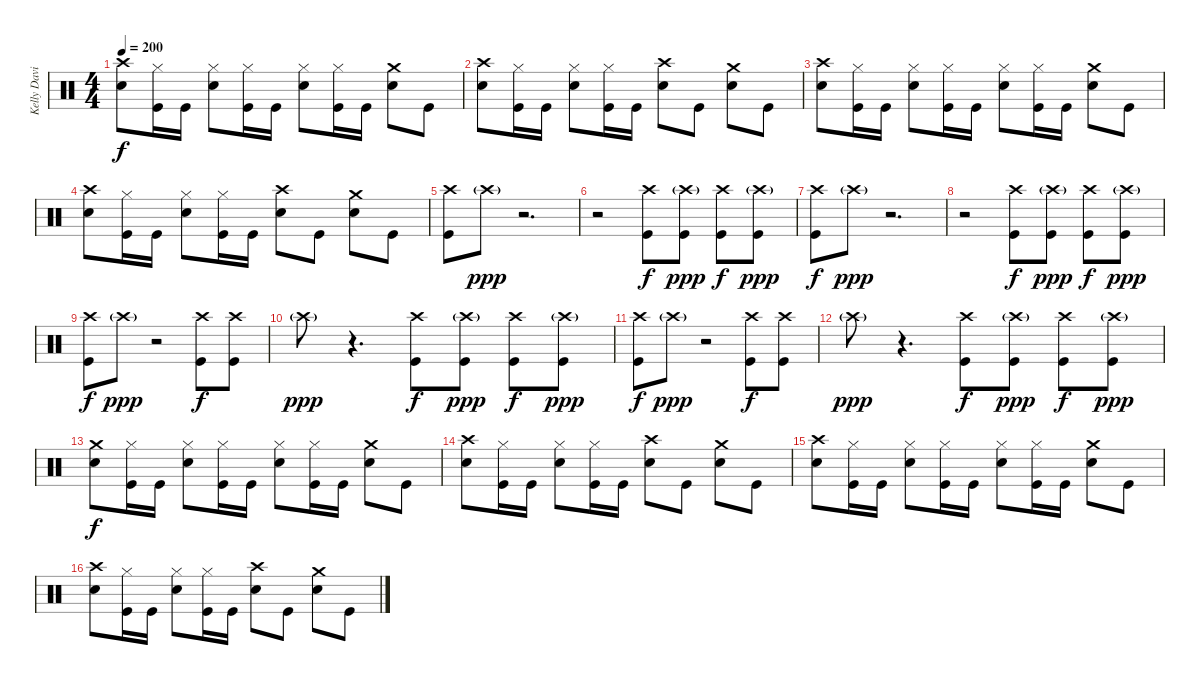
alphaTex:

\track ("Kelly David Smith" "Kelly Davi") {instrument percussion}
\staff {score}
\articulation defaults
\ts (4 4)
\tempo 200
\clef neutral
\ks c
("Crash high (hit)" "Snare (hit) 2").8{dy f} ("Hi-Hat (closed)" "Kick (hit)").16 "Kick (hit)".16 ("Hi-Hat (closed)" "Snare (hit) 2").8 ("Hi-Hat (closed)" "Kick (hit)").16 "Kick (hit)".16 ("Hi-Hat (closed)" "Snare (hit) 2").8 ("Hi-Hat (closed)" "Kick (hit)").16 "Kick (hit)".16 ("Crash medium (hit)" "Snare (hit) 2").8 "Kick (hit)".8 |
("Crash high (hit)" "Snare (hit) 2").8 ("Hi-Hat (closed)" "Kick (hit)").16 "Kick (hit)".16 ("Hi-Hat (closed)" "Snare (hit) 2").8 ("Hi-Hat (closed)" "Kick (hit)").16 "Kick (hit)".16 ("Crash high (hit)" "Snare (hit) 2").8 "Kick (hit)".8 ("Crash medium (hit)" "Snare (hit) 2").8 "Kick (hit)".8 |
("Crash high (hit)" "Snare (hit) 2").8 ("Hi-Hat (closed)" "Kick (hit)").16 "Kick (hit)".16 ("Hi-Hat (closed)" "Snare (hit) 2").8 ("Hi-Hat (closed)" "Kick (hit)").16 "Kick (hit)".16 ("Hi-Hat (closed)" "Snare (hit) 2").8 ("Hi-Hat (closed)" "Kick (hit)").16 "Kick (hit)".16 ("Crash medium (hit)" "Snare (hit) 2").8 "Kick (hit)".8 |
("Crash high (hit)" "Snare (hit) 2").8 ("Hi-Hat (closed)" "Kick (hit)").16 "Kick (hit)".16 ("Hi-Hat (closed)" "Snare (hit) 2").8 ("Hi-Hat (closed)" "Kick (hit)").16 "Kick (hit)".16 ("Crash high (hit)" "Snare (hit) 2").8 "Kick (hit)".8 ("Crash medium (hit)" "Snare (hit) 2").8 "Kick (hit)".8 |
("Crash high (hit)" "Kick (hit)").8 "Crash high (hit)"{g}.8{dy ppp} r.2{d} |
r.2 ("Crash high (hit)" "Kick (hit)").8{dy f} ("Crash high (hit)"{g} "Kick (hit)").8{dy ppp} ("Crash high (hit)" "Kick (hit)").8{dy f} ("Crash high (hit)"{g} "Kick (hit)").8{dy ppp} |
("Crash high (hit)" "Kick (hit)").8{dy f} "Crash high (hit)"{g}.8{dy ppp} r.2{d} |
r.2 ("Crash high (hit)" "Kick (hit)").8{dy f} ("Crash high (hit)"{g} "Kick (hit)").8{dy ppp} ("Crash high (hit)" "Kick (hit)").8{dy f} ("Crash high (hit)"{g} "Kick (hit)").8{dy ppp} |
("Crash high (hit)" "Kick (hit)").8{dy f} "Crash high (hit)"{g}.8{dy ppp} r.2 ("Crash high (hit)" "Kick (hit)").8{dy f} ("Crash high (hit)" "Kick (hit)").8 |
"Crash high (hit)"{g}.8{dy ppp} r.4{d} ("Crash high (hit)" "Kick (hit)").8{dy f} ("Crash high (hit)"{g} "Kick (hit)").8{dy ppp} ("Crash high (hit)" "Kick (hit)").8{dy f} ("Crash high (hit)"{g} "Kick (hit)").8{dy ppp} |
("Crash high (hit)" "Kick (hit)").8{dy f} "Crash high (hit)"{g}.8{dy ppp} r.2 ("Crash high (hit)" "Kick (hit)").8{dy f} ("Crash high (hit)" "Kick (hit)").8 |
"Crash high (hit)"{g}.8{dy ppp} r.4{d} ("Crash high (hit)" "Kick (hit)").8{dy f} ("Crash high (hit)"{g} "Kick (hit)").8{dy ppp} ("Crash high (hit)" "Kick (hit)").8{dy f} ("Crash high (hit)"{g} "Kick (hit)").8{dy ppp} |
("Crash medium (hit)" "Snare (hit) 2").8{dy f} ("Hi-Hat (closed)" "Kick (hit)").16 "Kick (hit)".16 ("Hi-Hat (closed)" "Snare (hit) 2").8 ("Hi-Hat (closed)" "Kick (hit)").16 "Kick (hit)".16 ("Hi-Hat (closed)" "Snare (hit) 2").8 ("Hi-Hat (closed)" "Kick (hit)").16 "Kick (hit)".16 ("Crash medium (hit)" "Snare (hit) 2").8 "Kick (hit)".8 |
("Crash high (hit)" "Snare (hit) 2").8 ("Hi-Hat (closed)" "Kick (hit)").16 "Kick (hit)".16 ("Hi-Hat (closed)" "Snare (hit) 2").8 ("Hi-Hat (closed)" "Kick (hit)").16 "Kick (hit)".16 ("Crash high (hit)" "Snare (hit) 2").8 "Kick (hit)".8 ("Crash medium (hit)" "Snare (hit) 2").8 "Kick (hit)".8 |
("Crash high (hit)" "Snare (hit) 2").8 ("Hi-Hat (closed)" "Kick (hit)").16 "Kick (hit)".16 ("Hi-Hat (closed)" "Snare (hit) 2").8 ("Hi-Hat (closed)" "Kick (hit)").16 "Kick (hit)".16 ("Hi-Hat (closed)" "Snare (hit) 2").8 ("Hi-Hat (closed)" "Kick (hit)").16 "Kick (hit)".16 ("Crash medium (hit)" "Snare (hit) 2").8 "Kick (hit)".8 |
("Crash high (hit)" "Snare (hit) 2").8 ("Hi-Hat (closed)" "Kick (hit)").16 "Kick (hit)".16 ("Hi-Hat (closed)" "Snare (hit) 2").8 ("Hi-Hat (closed)" "Kick (hit)").16 "Kick (hit)".16 ("Crash high (hit)" "Snare (hit) 2").8 "Kick (hit)".8 ("Crash medium (hit)" "Snare (hit) 2").8 "Kick (hit)".8
